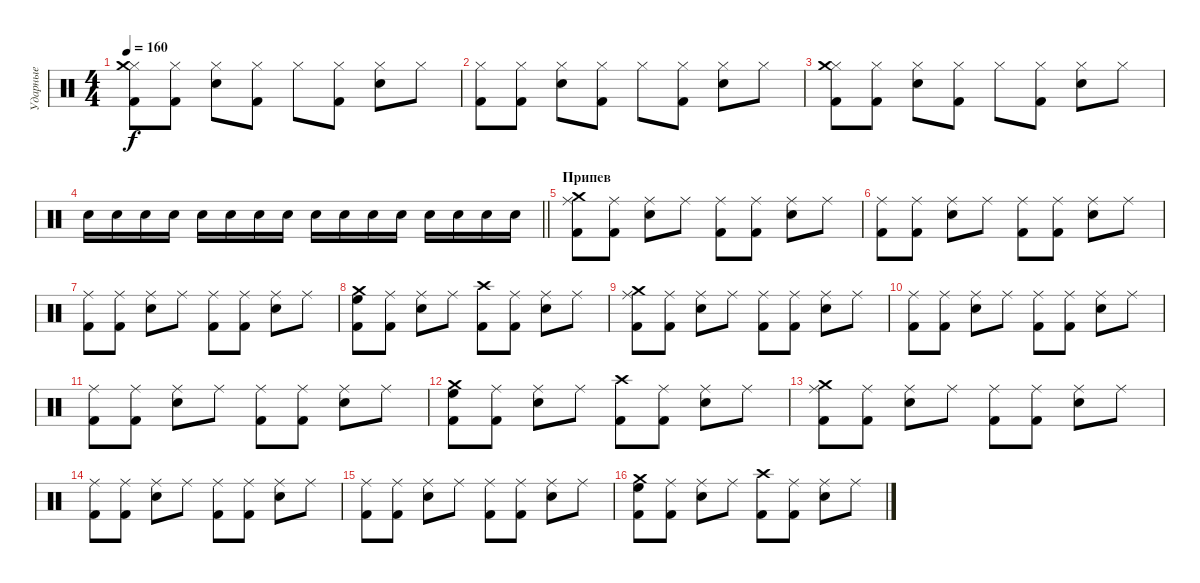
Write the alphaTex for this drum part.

\track ("Ударные" "Ударные") {instrument percussion}
\staff {score}
\articulation defaults
\ts (4 4)
\tempo 160
\clef neutral
\ks c
("Kick (hit) 2" "Hi-Hat (closed)" "Crash medium (hit)").8{dy f} ("Kick (hit) 2" "Hi-Hat (closed)").8 ("Snare (hit) 2" "Hi-Hat (closed)").8 ("Kick (hit) 2" "Hi-Hat (closed)").8 "Hi-Hat (closed)".8 ("Kick (hit) 2" "Hi-Hat (closed)").8 ("Snare (hit) 2" "Hi-Hat (closed)").8 "Hi-Hat (closed)".8 |
("Kick (hit) 2" "Hi-Hat (closed)").8 ("Kick (hit) 2" "Hi-Hat (closed)").8 ("Snare (hit) 2" "Hi-Hat (closed)").8 ("Kick (hit) 2" "Hi-Hat (closed)").8 "Hi-Hat (closed)".8 ("Kick (hit) 2" "Hi-Hat (closed)").8 ("Snare (hit) 2" "Hi-Hat (closed)").8 "Hi-Hat (closed)".8 |
("Kick (hit) 2" "Hi-Hat (closed)" "Crash medium (hit)").8 ("Kick (hit) 2" "Hi-Hat (closed)").8 ("Snare (hit) 2" "Hi-Hat (closed)").8 ("Kick (hit) 2" "Hi-Hat (closed)").8 "Hi-Hat (closed)".8 ("Kick (hit) 2" "Hi-Hat (closed)").8 ("Snare (hit) 2" "Hi-Hat (closed)").8 "Hi-Hat (closed)".8 |
\barLineRight lightlight "Snare (hit) 2".16 "Snare (hit) 2".16 "Snare (hit) 2".16 "Snare (hit) 2".16 "Snare (hit) 2".16 "Snare (hit) 2".16 "Snare (hit) 2".16 "Snare (hit) 2".16 "Snare (hit) 2".16 "Snare (hit) 2".16 "Snare (hit) 2".16 "Snare (hit) 2".16 "Snare (hit) 2".16 "Snare (hit) 2".16 "Snare (hit) 2".16 "Snare (hit) 2".16
|
\section ("" "Припев")
("Crash medium (hit)" "Ride (middle)" "Kick (hit) 2").8 ("Ride (middle)" "Kick (hit) 2").8 ("Ride (middle)" "Snare (hit) 2").8 "Ride (middle)".8 ("Ride (middle)" "Kick (hit) 2").8 ("Ride (middle)" "Kick (hit) 2").8 ("Ride (middle)" "Snare (hit) 2").8 "Ride (middle)".8 |
("Ride (middle)" "Kick (hit) 2").8 ("Ride (middle)" "Kick (hit) 2").8 ("Ride (middle)" "Snare (hit) 2").8 "Ride (middle)".8 ("Ride (middle)" "Kick (hit) 2").8 ("Ride (middle)" "Kick (hit) 2").8 ("Ride (middle)" "Snare (hit) 2").8 "Ride (middle)".8 |
("Ride (middle)" "Kick (hit) 2").8 ("Ride (middle)" "Kick (hit) 2").8 ("Ride (middle)" "Snare (hit) 2").8 "Ride (middle)".8 ("Ride (middle)" "Kick (hit) 2").8 ("Ride (middle)" "Kick (hit) 2").8 ("Ride (middle)" "Snare (hit) 2").8 "Ride (middle)".8 |
("Crash medium (hit)" "High Floor Tom (hit)" "Kick (hit) 2").8 ("Ride (middle)" "Kick (hit) 2").8 ("Ride (middle)" "Snare (hit) 2").8 "Ride (middle)".8 ("Crash high (hit)" "Kick (hit) 2").8 ("Ride (middle)" "Kick (hit) 2").8 ("Ride (middle)" "Snare (hit) 2").8 "Ride (middle)".8 |
("Crash medium (hit)" "Ride (middle)" "Kick (hit) 2").8 ("Ride (middle)" "Kick (hit) 2").8 ("Ride (middle)" "Snare (hit) 2").8 "Ride (middle)".8 ("Ride (middle)" "Kick (hit) 2").8 ("Ride (middle)" "Kick (hit) 2").8 ("Ride (middle)" "Snare (hit) 2").8 "Ride (middle)".8 |
("Ride (middle)" "Kick (hit) 2").8 ("Ride (middle)" "Kick (hit) 2").8 ("Ride (middle)" "Snare (hit) 2").8 "Ride (middle)".8 ("Ride (middle)" "Kick (hit) 2").8 ("Ride (middle)" "Kick (hit) 2").8 ("Ride (middle)" "Snare (hit) 2").8 "Ride (middle)".8 |
("Ride (middle)" "Kick (hit) 2").8 ("Ride (middle)" "Kick (hit) 2").8 ("Ride (middle)" "Snare (hit) 2").8 "Ride (middle)".8 ("Ride (middle)" "Kick (hit) 2").8 ("Ride (middle)" "Kick (hit) 2").8 ("Ride (middle)" "Snare (hit) 2").8 "Ride (middle)".8 |
("Crash medium (hit)" "High Floor Tom (hit)" "Kick (hit) 2").8 ("Ride (middle)" "Kick (hit) 2").8 ("Ride (middle)" "Snare (hit) 2").8 "Ride (middle)".8 ("Crash high (hit)" "Kick (hit) 2").8 ("Ride (middle)" "Kick (hit) 2").8 ("Ride (middle)" "Snare (hit) 2").8 "Ride (middle)".8 |
("Crash medium (hit)" "Ride (middle)" "Kick (hit) 2").8 ("Ride (middle)" "Kick (hit) 2").8 ("Ride (middle)" "Snare (hit) 2").8 "Ride (middle)".8 ("Ride (middle)" "Kick (hit) 2").8 ("Ride (middle)" "Kick (hit) 2").8 ("Ride (middle)" "Snare (hit) 2").8 "Ride (middle)".8 |
("Ride (middle)" "Kick (hit) 2").8 ("Ride (middle)" "Kick (hit) 2").8 ("Ride (middle)" "Snare (hit) 2").8 "Ride (middle)".8 ("Ride (middle)" "Kick (hit) 2").8 ("Ride (middle)" "Kick (hit) 2").8 ("Ride (middle)" "Snare (hit) 2").8 "Ride (middle)".8 |
("Ride (middle)" "Kick (hit) 2").8 ("Ride (middle)" "Kick (hit) 2").8 ("Ride (middle)" "Snare (hit) 2").8 "Ride (middle)".8 ("Ride (middle)" "Kick (hit) 2").8 ("Ride (middle)" "Kick (hit) 2").8 ("Ride (middle)" "Snare (hit) 2").8 "Ride (middle)".8 |
("Crash medium (hit)" "High Floor Tom (hit)" "Kick (hit) 2").8 ("Ride (middle)" "Kick (hit) 2").8 ("Ride (middle)" "Snare (hit) 2").8 "Ride (middle)".8 ("Crash high (hit)" "Kick (hit) 2").8 ("Ride (middle)" "Kick (hit) 2").8 ("Ride (middle)" "Snare (hit) 2").8 "Ride (middle)".8
